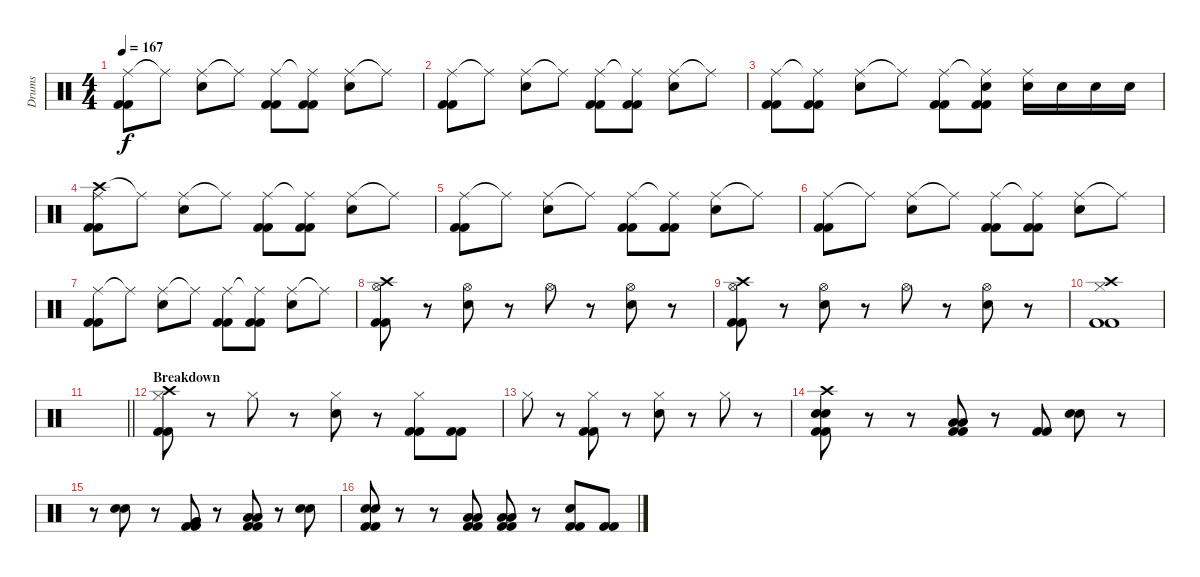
\track ("Drums" "Drums") {instrument percussion}
\staff {score}
\articulation defaults
\ts (4 4)
\tempo 167
\clef neutral
\ks c
("Ride (middle)" "Kick (hit) 2" "Kick (hit) 2").8{dy f} "Ride (middle)"{t}.8 ("Ride (middle)" "Electric Snare (hit)").8 "Ride (middle)"{t}.8 ("Ride (middle)" "Kick (hit) 2" "Kick (hit) 2").8 ("Ride (middle)"{t} "Kick (hit) 2" "Kick (hit) 2").8 ("Ride (middle)" "Electric Snare (hit)").8 "Ride (middle)"{t}.8 |
("Ride (middle)" "Kick (hit) 2" "Kick (hit) 2").8 "Ride (middle)"{t}.8 ("Ride (middle)" "Electric Snare (hit)").8 "Ride (middle)"{t}.8 ("Ride (middle)" "Kick (hit) 2" "Kick (hit) 2").8 ("Ride (middle)"{t} "Kick (hit) 2" "Kick (hit) 2").8 ("Ride (middle)" "Electric Snare (hit)").8 "Ride (middle)"{t}.8 |
("Ride (middle)" "Kick (hit) 2" "Kick (hit) 2").8 ("Ride (middle)"{t} "Kick (hit) 2" "Kick (hit) 2").8 ("Ride (middle)" "Electric Snare (hit)").8 "Ride (middle)"{t}.8 ("Ride (middle)" "Kick (hit) 2" "Kick (hit) 2").8 ("Ride (middle)"{t} "Electric Snare (hit)" "Kick (hit) 2" "Kick (hit) 2").8 ("Ride (middle)" "Electric Snare (hit)").16 "Electric Snare (hit)".16 "Electric Snare (hit)".16 "Electric Snare (hit)".16 |
("Crash high (hit)" "Ride (middle)" "Kick (hit) 2" "Kick (hit) 2").8 "Ride (middle)"{t}.8 ("Ride (middle)" "Electric Snare (hit)").8 "Ride (middle)"{t}.8 ("Ride (middle)" "Kick (hit) 2" "Kick (hit) 2").8 ("Ride (middle)"{t} "Kick (hit) 2" "Kick (hit) 2").8 ("Ride (middle)" "Electric Snare (hit)").8 "Ride (middle)"{t}.8 |
("Ride (middle)" "Kick (hit) 2" "Kick (hit) 2").8 "Ride (middle)"{t}.8 ("Ride (middle)" "Electric Snare (hit)").8 "Ride (middle)"{t}.8 ("Ride (middle)" "Kick (hit) 2" "Kick (hit) 2").8 ("Ride (middle)"{t} "Kick (hit) 2" "Kick (hit) 2").8 ("Ride (middle)" "Electric Snare (hit)").8 "Ride (middle)"{t}.8 |
("Ride (middle)" "Kick (hit) 2" "Kick (hit) 2").8 "Ride (middle)"{t}.8 ("Ride (middle)" "Electric Snare (hit)").8 "Ride (middle)"{t}.8 ("Ride (middle)" "Kick (hit) 2" "Kick (hit) 2").8 ("Ride (middle)"{t} "Kick (hit) 2" "Kick (hit) 2").8 ("Ride (middle)" "Electric Snare (hit)").8 "Ride (middle)"{t}.8 |
("Ride (middle)" "Kick (hit) 2" "Kick (hit) 2").8 "Ride (middle)"{t}.8 ("Ride (middle)" "Electric Snare (hit)").8 "Ride (middle)"{t}.8 ("Ride (middle)" "Kick (hit) 2" "Kick (hit) 2").8 ("Ride (middle)"{t} "Kick (hit) 2" "Kick (hit) 2").8 ("Ride (middle)" "Electric Snare (hit)").8 "Ride (middle)"{t}.8 |
("Crash high (hit)" "Hi-Hat (open)" "Kick (hit) 2" "Kick (hit) 2").8 r.8 ("Hi-Hat (open)" "Electric Snare (hit)").8 r.8 "Hi-Hat (open)".8 r.8 ("Hi-Hat (open)" "Electric Snare (hit)").8 r.8 |
("Crash high (hit)" "Hi-Hat (open)" "Kick (hit) 2" "Kick (hit) 2").8 r.8 ("Hi-Hat (open)" "Electric Snare (hit)").8 r.8 "Hi-Hat (open)".8 r.8 ("Hi-Hat (open)" "Electric Snare (hit)").8 r.8 |
("Crash high (hit)" "Hi-Hat (closed)" "Kick (hit) 2" "Kick (hit) 2").1 |
\barLineRight lightlight
|
\section ("" "Breakdown")
("Crash high (hit)" "Hi-Hat (closed)" "Kick (hit) 2" "Kick (hit) 2").8 r.8 "Hi-Hat (closed)".8 r.8 ("Hi-Hat (closed)" "Electric Snare (hit)").8 r.8 ("Hi-Hat (closed)" "Kick (hit) 2" "Kick (hit) 2").8 ("Kick (hit) 2" "Kick (hit) 2").8 |
"Hi-Hat (closed)".8 r.8 ("Hi-Hat (closed)" "Kick (hit) 2" "Kick (hit) 2").8 r.8 ("Hi-Hat (closed)" "Electric Snare (hit)").8 r.8 "Hi-Hat (closed)".8 r.8 |
("Crash high (hit)" "Electric Snare (hit)" "Electric Snare (hit)" "Kick (hit) 2" "Kick (hit) 2").8 r.8 r.8 ("Low Floor Tom (hit)" "Low Floor Tom (hit)" "Kick (hit) 2" "Kick (hit) 2").8 r.8 ("Kick (hit) 2" "Kick (hit) 2").8 ("Electric Snare (hit)" "Electric Snare (hit)").8 r.8 |
r.8 ("Electric Snare (hit)" "Electric Snare (hit)").8 r.8 ("Very Low Tom (hit)" "Very Low Tom (hit)" "Kick (hit) 2" "Kick (hit) 2").8 r.8 ("Low Floor Tom (hit)" "Low Floor Tom (hit)" "Kick (hit) 2" "Kick (hit) 2").8 r.8 ("Electric Snare (hit)" "Electric Snare (hit)").8 |
("Electric Snare (hit)" "Electric Snare (hit)" "Kick (hit) 2" "Kick (hit) 2").8 r.8 r.8 ("Low Floor Tom (hit)" "Low Floor Tom (hit)" "Kick (hit) 2" "Kick (hit) 2").8 ("Low Floor Tom (hit)" "Low Floor Tom (hit)" "Kick (hit) 2" "Kick (hit) 2").8 r.8 ("Electric Snare (hit)" "Kick (hit) 2" "Kick (hit) 2").8 ("Kick (hit) 2" "Kick (hit) 2").8
